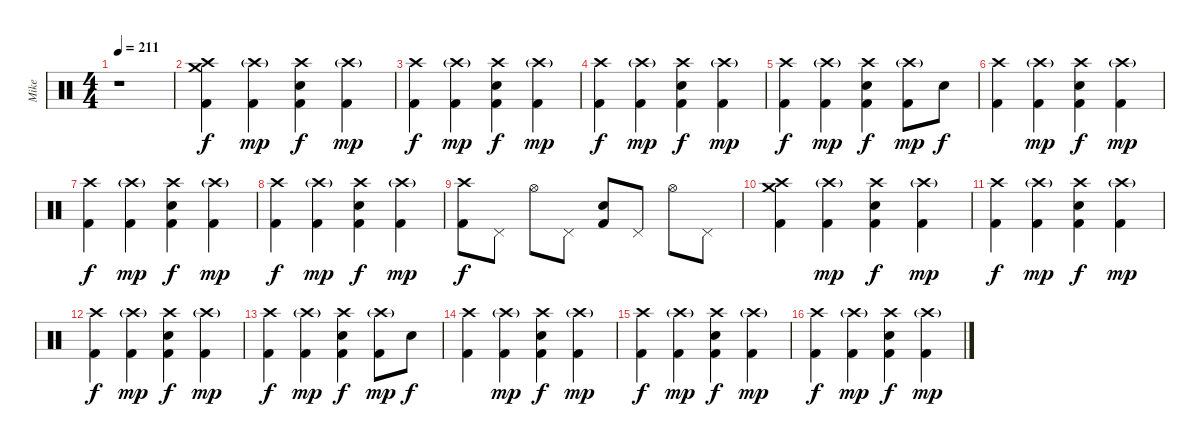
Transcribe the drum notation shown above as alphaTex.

\track ("Mike" "Mike") {instrument percussion}
\staff {score}
\articulation defaults
\ts (4 4)
\tempo 211
\clef neutral
\ks c
r.1{dy f} |
("Crash high (hit)" "Crash medium (hit)" "Kick (hit) 2").4 ("Crash high (hit)"{g} "Kick (hit) 2").4{dy mp} ("Crash high (hit)" "Electric Snare (hit)" "Kick (hit) 2").4{dy f} ("Crash high (hit)"{g} "Kick (hit) 2").4{dy mp} |
("Crash high (hit)" "Kick (hit) 2").4{dy f} ("Crash high (hit)"{g} "Kick (hit) 2").4{dy mp} ("Crash high (hit)" "Electric Snare (hit)" "Kick (hit) 2").4{dy f} ("Crash high (hit)"{g} "Kick (hit) 2").4{dy mp} |
("Crash high (hit)" "Kick (hit) 2").4{dy f} ("Crash high (hit)"{g} "Kick (hit) 2").4{dy mp} ("Crash high (hit)" "Electric Snare (hit)" "Kick (hit) 2").4{dy f} ("Crash high (hit)"{g} "Kick (hit) 2").4{dy mp} |
("Crash high (hit)" "Kick (hit) 2").4{dy f} ("Crash high (hit)"{g} "Kick (hit) 2").4{dy mp} ("Crash high (hit)" "Electric Snare (hit)" "Kick (hit) 2").4{dy f} ("Crash high (hit)"{g} "Kick (hit) 2").8{dy mp} "Electric Snare (hit)".8{dy f} |
("Crash high (hit)" "Kick (hit) 2").4 ("Crash high (hit)"{g} "Kick (hit) 2").4{dy mp} ("Crash high (hit)" "Electric Snare (hit)" "Kick (hit) 2").4{dy f} ("Crash high (hit)"{g} "Kick (hit) 2").4{dy mp} |
("Crash high (hit)" "Kick (hit) 2").4{dy f} ("Crash high (hit)"{g} "Kick (hit) 2").4{dy mp} ("Crash high (hit)" "Electric Snare (hit)" "Kick (hit) 2").4{dy f} ("Crash high (hit)"{g} "Kick (hit) 2").4{dy mp} |
("Crash high (hit)" "Kick (hit) 2").4{dy f} ("Crash high (hit)"{g} "Kick (hit) 2").4{dy mp} ("Crash high (hit)" "Electric Snare (hit)" "Kick (hit) 2").4{dy f} ("Crash high (hit)"{g} "Kick (hit) 2").4{dy mp} |
("Crash high (hit)" "Kick (hit) 2").8{dy f} "Pedal Hi-Hat (hit)".8 "Hi-Hat (open)".8 "Pedal Hi-Hat (hit)".8 ("Electric Snare (hit)" "Kick (hit) 2").8 "Pedal Hi-Hat (hit)".8 "Hi-Hat (open)".8 "Pedal Hi-Hat (hit)".8 |
("Crash high (hit)" "Crash medium (hit)" "Kick (hit) 2").4 ("Crash high (hit)"{g} "Kick (hit) 2").4{dy mp} ("Crash high (hit)" "Electric Snare (hit)" "Kick (hit) 2").4{dy f} ("Crash high (hit)"{g} "Kick (hit) 2").4{dy mp} |
("Crash high (hit)" "Kick (hit) 2").4{dy f} ("Crash high (hit)"{g} "Kick (hit) 2").4{dy mp} ("Crash high (hit)" "Electric Snare (hit)" "Kick (hit) 2").4{dy f} ("Crash high (hit)"{g} "Kick (hit) 2").4{dy mp} |
("Crash high (hit)" "Kick (hit) 2").4{dy f} ("Crash high (hit)"{g} "Kick (hit) 2").4{dy mp} ("Crash high (hit)" "Electric Snare (hit)" "Kick (hit) 2").4{dy f} ("Crash high (hit)"{g} "Kick (hit) 2").4{dy mp} |
("Crash high (hit)" "Kick (hit) 2").4{dy f} ("Crash high (hit)"{g} "Kick (hit) 2").4{dy mp} ("Crash high (hit)" "Electric Snare (hit)" "Kick (hit) 2").4{dy f} ("Crash high (hit)"{g} "Kick (hit) 2").8{dy mp} "Electric Snare (hit)".8{dy f} |
("Crash high (hit)" "Kick (hit) 2").4 ("Crash high (hit)"{g} "Kick (hit) 2").4{dy mp} ("Crash high (hit)" "Electric Snare (hit)" "Kick (hit) 2").4{dy f} ("Crash high (hit)"{g} "Kick (hit) 2").4{dy mp} |
("Crash high (hit)" "Kick (hit) 2").4{dy f} ("Crash high (hit)"{g} "Kick (hit) 2").4{dy mp} ("Crash high (hit)" "Electric Snare (hit)" "Kick (hit) 2").4{dy f} ("Crash high (hit)"{g} "Kick (hit) 2").4{dy mp} |
("Crash high (hit)" "Kick (hit) 2").4{dy f} ("Crash high (hit)"{g} "Kick (hit) 2").4{dy mp} ("Crash high (hit)" "Electric Snare (hit)" "Kick (hit) 2").4{dy f} ("Crash high (hit)"{g} "Kick (hit) 2").4{dy mp}
